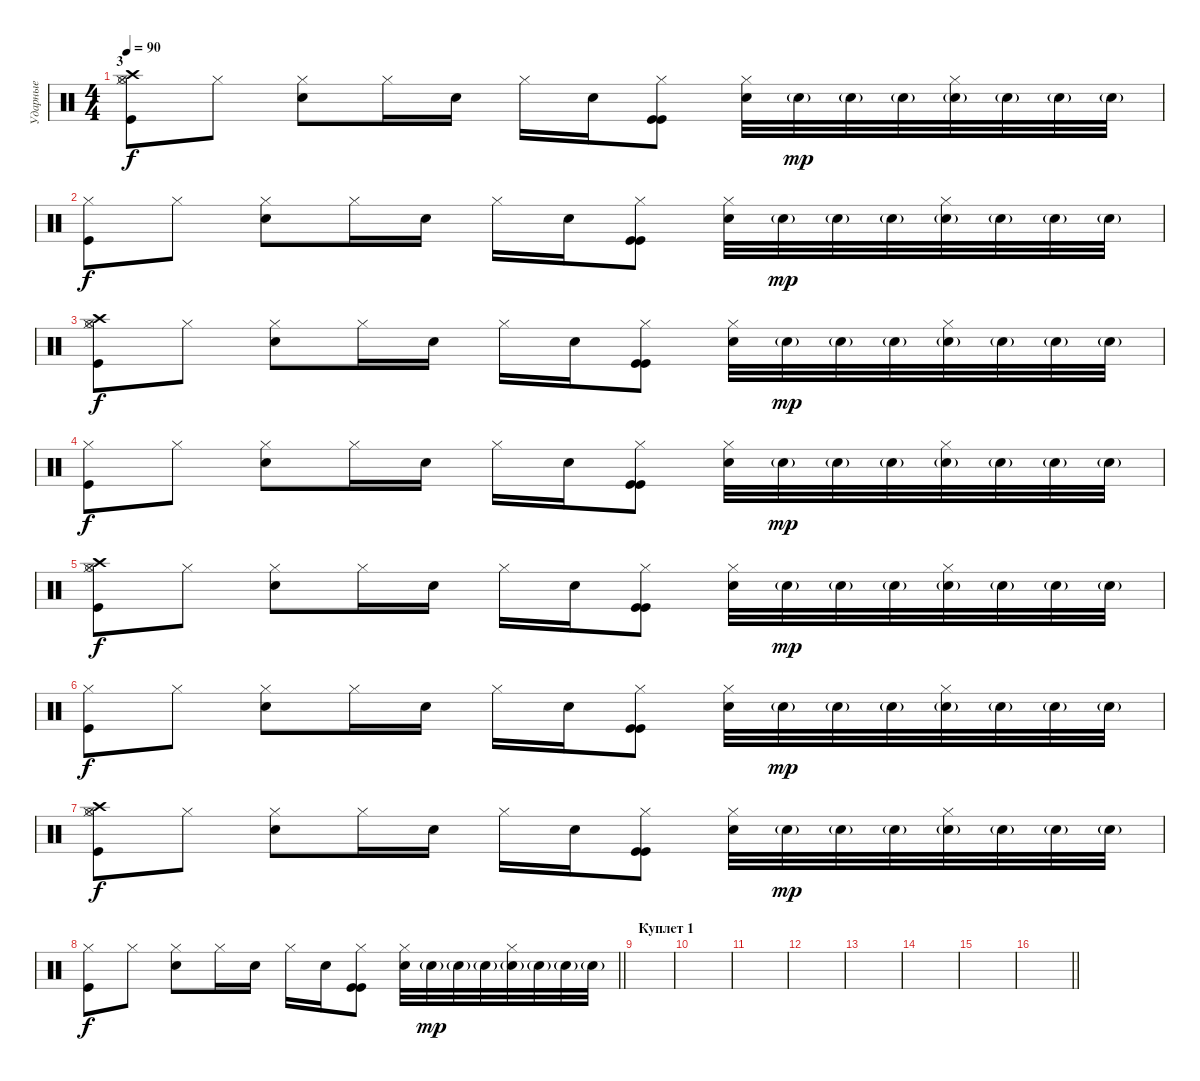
\track ("Ударные" "Ударные") {instrument percussion}
\staff {score}
\articulation defaults
\ts (4 4)
\section ("" "3")
\tempo 90
\clef neutral
\ks c
("Hi-Hat (closed)" "Kick (hit)" "Hi-Hat (open)" "Crash high (hit)").8{dy f volume 16} "Hi-Hat (closed)".8 ("Hi-Hat (closed)" "Electric Snare (hit)").8 "Hi-Hat (closed)".16 "Electric Snare (hit)".16 "Hi-Hat (closed)".16 "Electric Snare (hit)".16 ("Hi-Hat (closed)" "Kick (hit)" "Kick (hit)").8 ("Hi-Hat (closed)" "Electric Snare (hit)").32 "Snare (hit) 2"{g}.32{dy mp} "Snare (hit) 2"{g}.32 "Snare (hit) 2"{g}.32 ("Snare (hit) 2"{g} "Hi-Hat (closed)").32 "Snare (hit) 2"{g}.32 "Snare (hit) 2"{g}.32 "Snare (hit) 2"{g}.32 |
("Hi-Hat (closed)" "Kick (hit)").8{dy f} "Hi-Hat (closed)".8 ("Hi-Hat (closed)" "Electric Snare (hit)").8 "Hi-Hat (closed)".16 "Electric Snare (hit)".16 "Hi-Hat (closed)".16 "Electric Snare (hit)".16 ("Hi-Hat (closed)" "Kick (hit)" "Kick (hit)").8 ("Hi-Hat (closed)" "Electric Snare (hit)").32 "Snare (hit) 2"{g}.32{dy mp} "Snare (hit) 2"{g}.32 "Snare (hit) 2"{g}.32 ("Snare (hit) 2"{g} "Hi-Hat (closed)").32 "Snare (hit) 2"{g}.32 "Snare (hit) 2"{g}.32 "Snare (hit) 2"{g}.32 |
("Hi-Hat (closed)" "Kick (hit)" "Hi-Hat (open)" "Crash high (hit)").8{dy f} "Hi-Hat (closed)".8 ("Hi-Hat (closed)" "Electric Snare (hit)").8 "Hi-Hat (closed)".16 "Electric Snare (hit)".16 "Hi-Hat (closed)".16 "Electric Snare (hit)".16 ("Hi-Hat (closed)" "Kick (hit)" "Kick (hit)").8 ("Hi-Hat (closed)" "Electric Snare (hit)").32 "Snare (hit) 2"{g}.32{dy mp} "Snare (hit) 2"{g}.32 "Snare (hit) 2"{g}.32 ("Snare (hit) 2"{g} "Hi-Hat (closed)").32 "Snare (hit) 2"{g}.32 "Snare (hit) 2"{g}.32 "Snare (hit) 2"{g}.32 |
("Hi-Hat (closed)" "Kick (hit)").8{dy f} "Hi-Hat (closed)".8 ("Hi-Hat (closed)" "Electric Snare (hit)").8 "Hi-Hat (closed)".16 "Electric Snare (hit)".16 "Hi-Hat (closed)".16 "Electric Snare (hit)".16 ("Hi-Hat (closed)" "Kick (hit)" "Kick (hit)").8 ("Hi-Hat (closed)" "Electric Snare (hit)").32 "Snare (hit) 2"{g}.32{dy mp} "Snare (hit) 2"{g}.32 "Snare (hit) 2"{g}.32 ("Snare (hit) 2"{g} "Hi-Hat (closed)").32 "Snare (hit) 2"{g}.32 "Snare (hit) 2"{g}.32 "Snare (hit) 2"{g}.32 |
("Hi-Hat (closed)" "Kick (hit)" "Hi-Hat (open)" "Crash high (hit)").8{dy f volume 16} "Hi-Hat (closed)".8 ("Hi-Hat (closed)" "Electric Snare (hit)").8 "Hi-Hat (closed)".16 "Electric Snare (hit)".16 "Hi-Hat (closed)".16 "Electric Snare (hit)".16 ("Hi-Hat (closed)" "Kick (hit)" "Kick (hit)").8 ("Hi-Hat (closed)" "Electric Snare (hit)").32 "Snare (hit) 2"{g}.32{dy mp} "Snare (hit) 2"{g}.32 "Snare (hit) 2"{g}.32 ("Snare (hit) 2"{g} "Hi-Hat (closed)").32 "Snare (hit) 2"{g}.32 "Snare (hit) 2"{g}.32 "Snare (hit) 2"{g}.32 |
("Hi-Hat (closed)" "Kick (hit)").8{dy f} "Hi-Hat (closed)".8 ("Hi-Hat (closed)" "Electric Snare (hit)").8 "Hi-Hat (closed)".16 "Electric Snare (hit)".16 "Hi-Hat (closed)".16 "Electric Snare (hit)".16 ("Hi-Hat (closed)" "Kick (hit)" "Kick (hit)").8 ("Hi-Hat (closed)" "Electric Snare (hit)").32 "Snare (hit) 2"{g}.32{dy mp} "Snare (hit) 2"{g}.32 "Snare (hit) 2"{g}.32 ("Snare (hit) 2"{g} "Hi-Hat (closed)").32 "Snare (hit) 2"{g}.32 "Snare (hit) 2"{g}.32 "Snare (hit) 2"{g}.32 |
("Hi-Hat (closed)" "Kick (hit)" "Hi-Hat (open)" "Crash high (hit)").8{dy f volume 16} "Hi-Hat (closed)".8 ("Hi-Hat (closed)" "Electric Snare (hit)").8 "Hi-Hat (closed)".16 "Electric Snare (hit)".16 "Hi-Hat (closed)".16 "Electric Snare (hit)".16 ("Hi-Hat (closed)" "Kick (hit)" "Kick (hit)").8 ("Hi-Hat (closed)" "Electric Snare (hit)").32 "Snare (hit) 2"{g}.32{dy mp} "Snare (hit) 2"{g}.32 "Snare (hit) 2"{g}.32 ("Snare (hit) 2"{g} "Hi-Hat (closed)").32 "Snare (hit) 2"{g}.32 "Snare (hit) 2"{g}.32 "Snare (hit) 2"{g}.32 |
\barLineRight lightlight
("Hi-Hat (closed)" "Kick (hit)").8{dy f} "Hi-Hat (closed)".8 ("Hi-Hat (closed)" "Electric Snare (hit)").8 "Hi-Hat (closed)".16 "Electric Snare (hit)".16 "Hi-Hat (closed)".16 "Electric Snare (hit)".16 ("Hi-Hat (closed)" "Kick (hit)" "Kick (hit)").8 ("Hi-Hat (closed)" "Electric Snare (hit)").32 "Snare (hit) 2"{g}.32{dy mp} "Snare (hit) 2"{g}.32 "Snare (hit) 2"{g}.32 ("Snare (hit) 2"{g} "Hi-Hat (closed)").32 "Snare (hit) 2"{g}.32 "Snare (hit) 2"{g}.32 "Snare (hit) 2"{g}.32 |
\section ("" "Куплет 1")
|
|
|
|
|
|
|
\barLineRight lightlight
